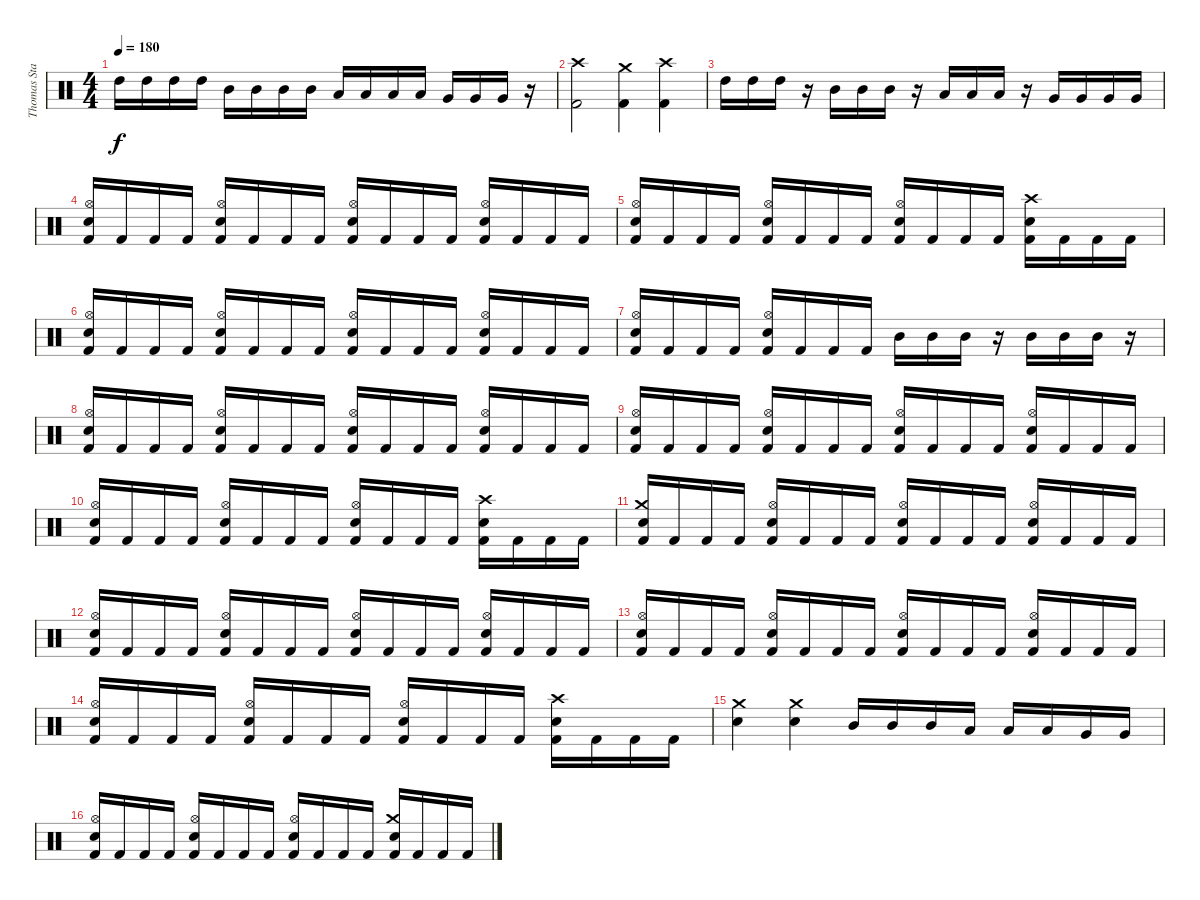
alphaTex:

\track ("Thomas Stauch" "Thomas Sta") {instrument percussion}
\staff {score}
\articulation defaults
\ts (4 4)
\tempo 180
\clef neutral
\ks c "High Tom (hit)".16{dy f} "High Tom (hit)".16 "High Tom (hit)".16 "High Tom (hit)".16 "Mid Tom (hit)".16 "Mid Tom (hit)".16 "Mid Tom (hit)".16 "Mid Tom (hit)".16 "Low Tom (hit)".16 "Low Tom (hit)".16 "Low Tom (hit)".16 "Low Tom (hit)".16 "Very Low Tom (hit)".16 "Very Low Tom (hit)".16 "Very Low Tom (hit)".16
r.16 |
("Crash high (hit)" "Kick (hit) 2").2 ("Crash medium (hit)" "Kick (hit) 2").4 ("Crash high (hit)" "Kick (hit) 2").4 |
"High Tom (hit)".16 "High Tom (hit)".16 "High Tom (hit)".16 r.16 "Mid Tom (hit)".16 "Mid Tom (hit)".16 "Mid Tom (hit)".16 r.16 "Low Tom (hit)".16 "Low Tom (hit)".16 "Low Tom (hit)".16 r.16 "Very Low Tom (hit)".16 "Very Low Tom (hit)".16 "Very Low Tom (hit)".16 "Very Low Tom (hit)".16 |
("Hi-Hat (open)" "Electric Snare (hit)" "Kick (hit) 2").16 "Kick (hit) 2".16 "Kick (hit) 2".16 "Kick (hit) 2".16 ("Hi-Hat (open)" "Electric Snare (hit)" "Kick (hit) 2").16 "Kick (hit) 2".16 "Kick (hit) 2".16 "Kick (hit) 2".16 ("Hi-Hat (open)" "Electric Snare (hit)" "Kick (hit) 2").16 "Kick (hit) 2".16 "Kick (hit) 2".16 "Kick (hit) 2".16 ("Hi-Hat (open)" "Electric Snare (hit)" "Kick (hit) 2").16 "Kick (hit) 2".16 "Kick (hit) 2".16 "Kick (hit) 2".16 |
("Hi-Hat (open)" "Electric Snare (hit)" "Kick (hit) 2").16 "Kick (hit) 2".16 "Kick (hit) 2".16 "Kick (hit) 2".16 ("Hi-Hat (open)" "Electric Snare (hit)" "Kick (hit) 2").16 "Kick (hit) 2".16 "Kick (hit) 2".16 "Kick (hit) 2".16 ("Hi-Hat (open)" "Electric Snare (hit)" "Kick (hit) 2").16 "Kick (hit) 2".16 "Kick (hit) 2".16 "Kick (hit) 2".16 ("Crash high (hit)" "Electric Snare (hit)" "Kick (hit) 2").16 "Kick (hit) 2".16 "Kick (hit) 2".16 "Kick (hit) 2".16 |
("Hi-Hat (open)" "Electric Snare (hit)" "Kick (hit) 2").16 "Kick (hit) 2".16 "Kick (hit) 2".16 "Kick (hit) 2".16 ("Hi-Hat (open)" "Electric Snare (hit)" "Kick (hit) 2").16 "Kick (hit) 2".16 "Kick (hit) 2".16 "Kick (hit) 2".16 ("Hi-Hat (open)" "Electric Snare (hit)" "Kick (hit) 2").16 "Kick (hit) 2".16 "Kick (hit) 2".16 "Kick (hit) 2".16 ("Hi-Hat (open)" "Electric Snare (hit)" "Kick (hit) 2").16 "Kick (hit) 2".16 "Kick (hit) 2".16 "Kick (hit) 2".16 |
("Hi-Hat (open)" "Electric Snare (hit)" "Kick (hit) 2").16 "Kick (hit) 2".16 "Kick (hit) 2".16 "Kick (hit) 2".16 ("Hi-Hat (open)" "Electric Snare (hit)" "Kick (hit) 2").16 "Kick (hit) 2".16 "Kick (hit) 2".16 "Kick (hit) 2".16 "Mid Tom (hit)".16 "Mid Tom (hit)".16 "Mid Tom (hit)".16 r.16 "Mid Tom (hit)".16 "Mid Tom (hit)".16 "Mid Tom (hit)".16 r.16 |
("Hi-Hat (open)" "Electric Snare (hit)" "Kick (hit) 2").16 "Kick (hit) 2".16 "Kick (hit) 2".16 "Kick (hit) 2".16 ("Hi-Hat (open)" "Electric Snare (hit)" "Kick (hit) 2").16 "Kick (hit) 2".16 "Kick (hit) 2".16 "Kick (hit) 2".16 ("Hi-Hat (open)" "Electric Snare (hit)" "Kick (hit) 2").16 "Kick (hit) 2".16 "Kick (hit) 2".16 "Kick (hit) 2".16 ("Hi-Hat (open)" "Electric Snare (hit)" "Kick (hit) 2").16 "Kick (hit) 2".16 "Kick (hit) 2".16 "Kick (hit) 2".16 |
("Hi-Hat (open)" "Electric Snare (hit)" "Kick (hit) 2").16 "Kick (hit) 2".16 "Kick (hit) 2".16 "Kick (hit) 2".16 ("Hi-Hat (open)" "Electric Snare (hit)" "Kick (hit) 2").16 "Kick (hit) 2".16 "Kick (hit) 2".16 "Kick (hit) 2".16 ("Hi-Hat (open)" "Electric Snare (hit)" "Kick (hit) 2").16 "Kick (hit) 2".16 "Kick (hit) 2".16 "Kick (hit) 2".16 ("Hi-Hat (open)" "Electric Snare (hit)" "Kick (hit) 2").16 "Kick (hit) 2".16 "Kick (hit) 2".16 "Kick (hit) 2".16 |
("Hi-Hat (open)" "Electric Snare (hit)" "Kick (hit) 2").16 "Kick (hit) 2".16 "Kick (hit) 2".16 "Kick (hit) 2".16 ("Hi-Hat (open)" "Electric Snare (hit)" "Kick (hit) 2").16 "Kick (hit) 2".16 "Kick (hit) 2".16 "Kick (hit) 2".16 ("Hi-Hat (open)" "Electric Snare (hit)" "Kick (hit) 2").16 "Kick (hit) 2".16 "Kick (hit) 2".16 "Kick (hit) 2".16 ("Crash high (hit)" "Electric Snare (hit)" "Kick (hit) 2").16 "Kick (hit) 2".16 "Kick (hit) 2".16 "Kick (hit) 2".16 |
("Crash medium (hit)" "Electric Snare (hit)" "Kick (hit) 2").16 "Kick (hit) 2".16 "Kick (hit) 2".16 "Kick (hit) 2".16 ("Hi-Hat (open)" "Electric Snare (hit)" "Kick (hit) 2").16 "Kick (hit) 2".16 "Kick (hit) 2".16 "Kick (hit) 2".16 ("Hi-Hat (open)" "Electric Snare (hit)" "Kick (hit) 2").16 "Kick (hit) 2".16 "Kick (hit) 2".16 "Kick (hit) 2".16 ("Hi-Hat (open)" "Electric Snare (hit)" "Kick (hit) 2").16 "Kick (hit) 2".16 "Kick (hit) 2".16 "Kick (hit) 2".16 |
("Hi-Hat (open)" "Electric Snare (hit)" "Kick (hit) 2").16 "Kick (hit) 2".16 "Kick (hit) 2".16 "Kick (hit) 2".16 ("Hi-Hat (open)" "Electric Snare (hit)" "Kick (hit) 2").16 "Kick (hit) 2".16 "Kick (hit) 2".16 "Kick (hit) 2".16 ("Hi-Hat (open)" "Electric Snare (hit)" "Kick (hit) 2").16 "Kick (hit) 2".16 "Kick (hit) 2".16 "Kick (hit) 2".16 ("Hi-Hat (open)" "Electric Snare (hit)" "Kick (hit) 2").16 "Kick (hit) 2".16 "Kick (hit) 2".16 "Kick (hit) 2".16 |
("Hi-Hat (open)" "Electric Snare (hit)" "Kick (hit) 2").16 "Kick (hit) 2".16 "Kick (hit) 2".16 "Kick (hit) 2".16 ("Hi-Hat (open)" "Electric Snare (hit)" "Kick (hit) 2").16 "Kick (hit) 2".16 "Kick (hit) 2".16 "Kick (hit) 2".16 ("Hi-Hat (open)" "Electric Snare (hit)" "Kick (hit) 2").16 "Kick (hit) 2".16 "Kick (hit) 2".16 "Kick (hit) 2".16 ("Hi-Hat (open)" "Electric Snare (hit)" "Kick (hit) 2").16 "Kick (hit) 2".16 "Kick (hit) 2".16 "Kick (hit) 2".16 |
("Hi-Hat (open)" "Electric Snare (hit)" "Kick (hit) 2").16 "Kick (hit) 2".16 "Kick (hit) 2".16 "Kick (hit) 2".16 ("Hi-Hat (open)" "Electric Snare (hit)" "Kick (hit) 2").16 "Kick (hit) 2".16 "Kick (hit) 2".16 "Kick (hit) 2".16 ("Hi-Hat (open)" "Electric Snare (hit)" "Kick (hit) 2").16 "Kick (hit) 2".16 "Kick (hit) 2".16 "Kick (hit) 2".16 ("Crash high (hit)" "Electric Snare (hit)" "Kick (hit) 2").16 "Kick (hit) 2".16 "Kick (hit) 2".16 "Kick (hit) 2".16 |
("Crash medium (hit)" "Electric Snare (hit)").4 ("Crash medium (hit)" "Electric Snare (hit)").4 "Mid Tom (hit)".16 "Mid Tom (hit)".16 "Mid Tom (hit)".16 "Low Tom (hit)".16 "Low Tom (hit)".16 "Low Tom (hit)".16 "Very Low Tom (hit)".16 "Very Low Tom (hit)".16 |
("Hi-Hat (open)" "Electric Snare (hit)" "Kick (hit) 2").16 "Kick (hit) 2".16 "Kick (hit) 2".16 "Kick (hit) 2".16 ("Hi-Hat (open)" "Electric Snare (hit)" "Kick (hit) 2").16 "Kick (hit) 2".16 "Kick (hit) 2".16 "Kick (hit) 2".16 ("Hi-Hat (open)" "Electric Snare (hit)" "Kick (hit) 2").16 "Kick (hit) 2".16 "Kick (hit) 2".16 "Kick (hit) 2".16 ("Crash medium (hit)" "Electric Snare (hit)" "Kick (hit) 2").16 "Kick (hit) 2".16 "Kick (hit) 2".16 "Kick (hit) 2".16
